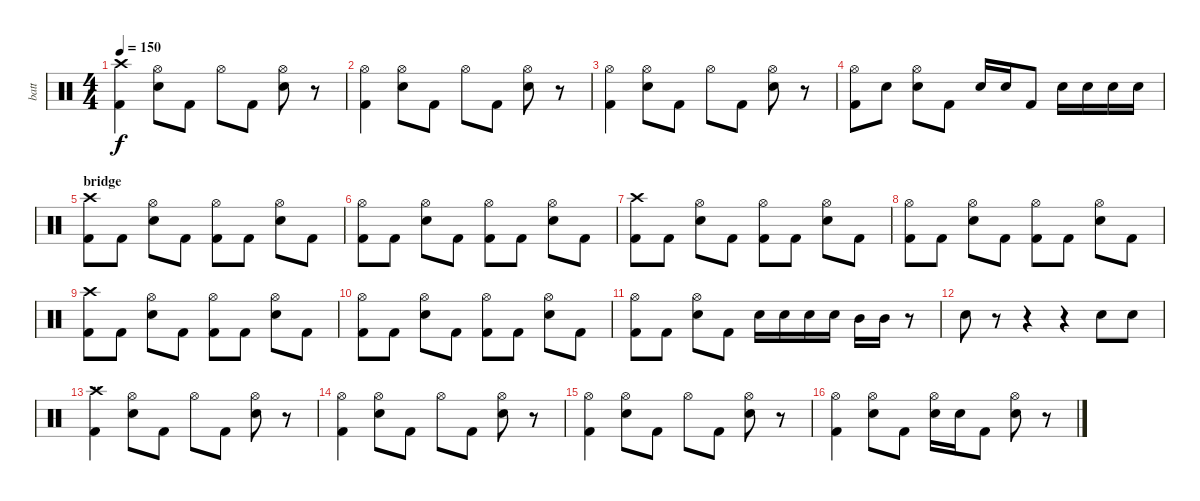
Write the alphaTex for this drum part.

\track ("batt" "batt") {instrument percussion}
\staff {score}
\articulation defaults
\ts (4 4)
\tempo 150
\clef neutral
\ks c
("Crash high (hit)" "Kick (hit) 2").4{dy f} ("Hi-Hat (open)" "Electric Snare (hit)").8 "Kick (hit) 2".8 "Hi-Hat (open)".8 "Kick (hit) 2".8 ("Hi-Hat (open)" "Electric Snare (hit)").8 r.8 |
("Hi-Hat (open)" "Kick (hit) 2").4 ("Hi-Hat (open)" "Electric Snare (hit)").8 "Kick (hit) 2".8 "Hi-Hat (open)".8 "Kick (hit) 2".8 ("Hi-Hat (open)" "Electric Snare (hit)").8 r.8 |
("Hi-Hat (open)" "Kick (hit) 2").4 ("Hi-Hat (open)" "Electric Snare (hit)").8 "Kick (hit) 2".8 "Hi-Hat (open)".8 "Kick (hit) 2".8 ("Hi-Hat (open)" "Electric Snare (hit)").8 r.8 |
("Hi-Hat (open)" "Kick (hit) 2").8 "Electric Snare (hit)".8 ("Hi-Hat (open)" "Electric Snare (hit)").8 "Kick (hit) 2".8 "Electric Snare (hit)".16 "Electric Snare (hit)".16 "Kick (hit) 2".8 "Electric Snare (hit)".16 "Electric Snare (hit)".16 "Electric Snare (hit)".16 "Electric Snare (hit)".16 |
\section ("" "bridge")
("Crash high (hit)" "Kick (hit) 2").8 "Kick (hit) 2".8 ("Hi-Hat (open)" "Electric Snare (hit)").8 "Kick (hit) 2".8 ("Hi-Hat (open)" "Kick (hit) 2").8 "Kick (hit) 2".8 ("Hi-Hat (open)" "Electric Snare (hit)").8 "Kick (hit) 2".8 |
("Hi-Hat (open)" "Kick (hit) 2").8 "Kick (hit) 2".8 ("Hi-Hat (open)" "Electric Snare (hit)").8 "Kick (hit) 2".8 ("Hi-Hat (open)" "Kick (hit) 2").8 "Kick (hit) 2".8 ("Hi-Hat (open)" "Electric Snare (hit)").8 "Kick (hit) 2".8 |
("Crash high (hit)" "Kick (hit) 2").8 "Kick (hit) 2".8 ("Hi-Hat (open)" "Electric Snare (hit)").8 "Kick (hit) 2".8 ("Hi-Hat (open)" "Kick (hit) 2").8 "Kick (hit) 2".8 ("Hi-Hat (open)" "Electric Snare (hit)").8 "Kick (hit) 2".8 |
("Hi-Hat (open)" "Kick (hit) 2").8 "Kick (hit) 2".8 ("Hi-Hat (open)" "Electric Snare (hit)").8 "Kick (hit) 2".8 ("Hi-Hat (open)" "Kick (hit) 2").8 "Kick (hit) 2".8 ("Hi-Hat (open)" "Electric Snare (hit)").8 "Kick (hit) 2".8 |
("Crash high (hit)" "Kick (hit) 2").8 "Kick (hit) 2".8 ("Hi-Hat (open)" "Electric Snare (hit)").8 "Kick (hit) 2".8 ("Hi-Hat (open)" "Kick (hit) 2").8 "Kick (hit) 2".8 ("Hi-Hat (open)" "Electric Snare (hit)").8 "Kick (hit) 2".8 |
("Hi-Hat (open)" "Kick (hit) 2").8 "Kick (hit) 2".8 ("Hi-Hat (open)" "Electric Snare (hit)").8 "Kick (hit) 2".8 ("Hi-Hat (open)" "Kick (hit) 2").8 "Kick (hit) 2".8 ("Hi-Hat (open)" "Electric Snare (hit)").8 "Kick (hit) 2".8 |
("Hi-Hat (open)" "Kick (hit) 2").8 "Kick (hit) 2".8 ("Hi-Hat (open)" "Electric Snare (hit)").8 "Kick (hit) 2".8 "Electric Snare (hit)".16 "Electric Snare (hit)".16 "Electric Snare (hit)".16 "Electric Snare (hit)".16 "Mid Tom (hit)".16 "Mid Tom (hit)".16 r.8 |
"Electric Snare (hit)".8 r.8 r.4 r.4 "Electric Snare (hit)".8 "Electric Snare (hit)".8 |
\section ("" "...")
("Crash high (hit)" "Kick (hit) 2").4 ("Hi-Hat (open)" "Electric Snare (hit)").8 "Kick (hit) 2".8 "Hi-Hat (open)".8 "Kick (hit) 2".8 ("Hi-Hat (open)" "Electric Snare (hit)").8 r.8 |
("Hi-Hat (open)" "Kick (hit) 2").4 ("Hi-Hat (open)" "Electric Snare (hit)").8 "Kick (hit) 2".8 "Hi-Hat (open)".8 "Kick (hit) 2".8 ("Hi-Hat (open)" "Electric Snare (hit)").8 r.8 |
("Hi-Hat (open)" "Kick (hit) 2").4 ("Hi-Hat (open)" "Electric Snare (hit)").8 "Kick (hit) 2".8 "Hi-Hat (open)".8 "Kick (hit) 2".8 ("Hi-Hat (open)" "Electric Snare (hit)").8 r.8 |
("Hi-Hat (open)" "Kick (hit) 2").4 ("Hi-Hat (open)" "Electric Snare (hit)").8 "Kick (hit) 2".8 ("Hi-Hat (open)" "Electric Snare (hit)").16 "Electric Snare (hit)".16 "Kick (hit) 2".8 ("Hi-Hat (open)" "Electric Snare (hit)").8 r.8
